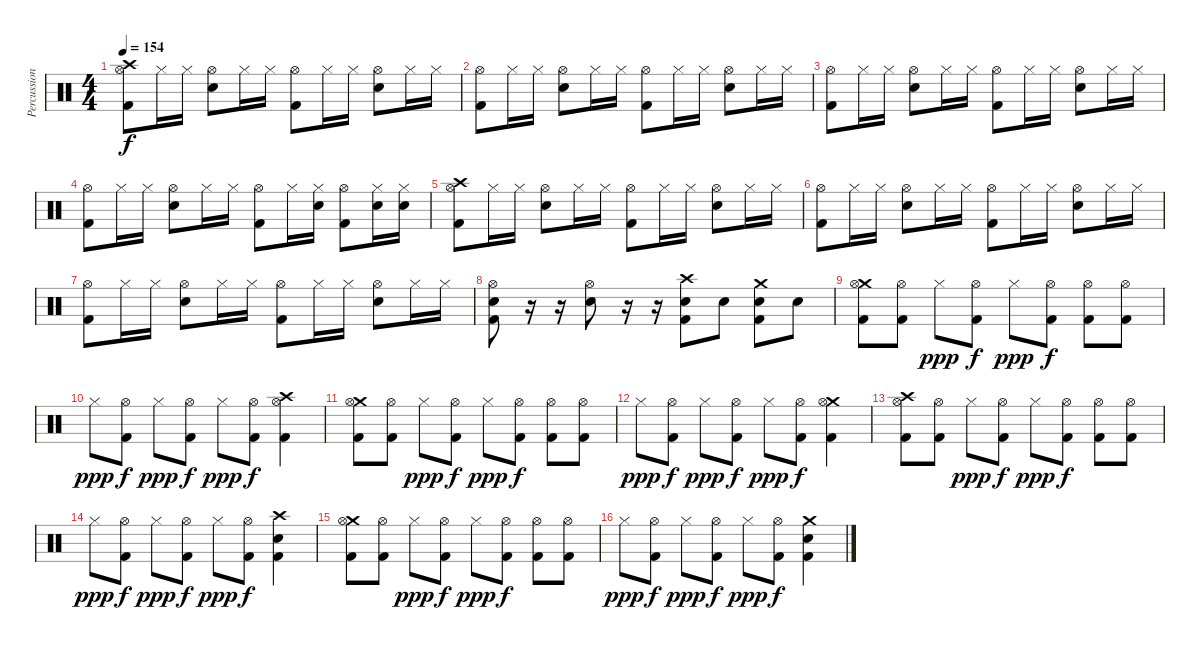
\track ("Percussion" "Percussion") {instrument percussion}
\staff {score}
\articulation defaults
\ts (4 4)
\section ("" "")
\tempo 154
\clef neutral
\ks c
("Crash high (hit)" "Hi-Hat (open)" "Kick (hit) 2").8{dy f} "Hi-Hat (closed)".16 "Hi-Hat (closed)".16 ("Hi-Hat (open)" "Snare (hit) 2").8 "Hi-Hat (closed)".16 "Hi-Hat (closed)".16 ("Hi-Hat (open)" "Kick (hit) 2").8 "Hi-Hat (closed)".16 "Hi-Hat (closed)".16 ("Hi-Hat (open)" "Snare (hit) 2").8 "Hi-Hat (closed)".16 "Hi-Hat (closed)".16 |
("Hi-Hat (open)" "Kick (hit) 2").8 "Hi-Hat (closed)".16 "Hi-Hat (closed)".16 ("Hi-Hat (open)" "Snare (hit) 2").8 "Hi-Hat (closed)".16 "Hi-Hat (closed)".16 ("Hi-Hat (open)" "Kick (hit) 2").8 "Hi-Hat (closed)".16 "Hi-Hat (closed)".16 ("Hi-Hat (open)" "Snare (hit) 2").8 "Hi-Hat (closed)".16 "Hi-Hat (closed)".16 |
("Hi-Hat (open)" "Kick (hit) 2").8 "Hi-Hat (closed)".16 "Hi-Hat (closed)".16 ("Hi-Hat (open)" "Snare (hit) 2").8 "Hi-Hat (closed)".16 "Hi-Hat (closed)".16 ("Hi-Hat (open)" "Kick (hit) 2").8 "Hi-Hat (closed)".16 "Hi-Hat (closed)".16 ("Hi-Hat (open)" "Snare (hit) 2").8 "Hi-Hat (closed)".16 "Hi-Hat (closed)".16 |
("Hi-Hat (open)" "Kick (hit) 2").8 "Hi-Hat (closed)".16 "Hi-Hat (closed)".16 ("Hi-Hat (open)" "Snare (hit) 2").8 "Hi-Hat (closed)".16 "Hi-Hat (closed)".16 ("Hi-Hat (open)" "Kick (hit) 2").8 "Hi-Hat (closed)".16 ("Hi-Hat (closed)" "Snare (hit) 2").16 ("Hi-Hat (open)" "Kick (hit) 2").8 ("Hi-Hat (closed)" "Snare (hit) 2").16 ("Hi-Hat (closed)" "Snare (hit) 2").16 |
("Crash high (hit)" "Hi-Hat (open)" "Kick (hit) 2").8 "Hi-Hat (closed)".16 "Hi-Hat (closed)".16 ("Hi-Hat (open)" "Snare (hit) 2").8 "Hi-Hat (closed)".16 "Hi-Hat (closed)".16 ("Hi-Hat (open)" "Kick (hit) 2").8 "Hi-Hat (closed)".16 "Hi-Hat (closed)".16 ("Hi-Hat (open)" "Snare (hit) 2").8 "Hi-Hat (closed)".16 "Hi-Hat (closed)".16 |
("Hi-Hat (open)" "Kick (hit) 2").8 "Hi-Hat (closed)".16 "Hi-Hat (closed)".16 ("Hi-Hat (open)" "Snare (hit) 2").8 "Hi-Hat (closed)".16 "Hi-Hat (closed)".16 ("Hi-Hat (open)" "Kick (hit) 2").8 "Hi-Hat (closed)".16 "Hi-Hat (closed)".16 ("Hi-Hat (open)" "Snare (hit) 2").8 "Hi-Hat (closed)".16 "Hi-Hat (closed)".16 |
("Hi-Hat (open)" "Kick (hit) 2").8 "Hi-Hat (closed)".16 "Hi-Hat (closed)".16 ("Hi-Hat (open)" "Snare (hit) 2").8 "Hi-Hat (closed)".16 "Hi-Hat (closed)".16 ("Hi-Hat (open)" "Kick (hit) 2").8 "Hi-Hat (closed)".16 "Hi-Hat (closed)".16 ("Hi-Hat (open)" "Snare (hit) 2").8 "Hi-Hat (closed)".16 "Hi-Hat (closed)".16 |
("Hi-Hat (open)" "Snare (hit) 2" "Kick (hit) 2").8 r.16 r.16 ("Hi-Hat (open)" "Snare (hit) 2").8 r.16 r.16 ("Crash high (hit)" "Snare (hit) 2" "Kick (hit) 2").8 "Snare (hit) 2".8 ("Crash medium (hit)" "Snare (hit) 2" "Kick (hit) 2").8 "Snare (hit) 2".8 |
\section ("" "")
("Crash medium (hit)" "Hi-Hat (open)" "Kick (hit) 2").8 ("Hi-Hat (open)" "Kick (hit) 2").8 "Hi-Hat (closed)".8{dy ppp} ("Hi-Hat (open)" "Kick (hit) 2").8{dy f} "Hi-Hat (closed)".8{dy ppp} ("Hi-Hat (open)" "Kick (hit) 2").8{dy f} ("Hi-Hat (open)" "Kick (hit) 2").8 ("Hi-Hat (open)" "Kick (hit) 2").8 |
"Hi-Hat (closed)".8{dy ppp} ("Hi-Hat (open)" "Kick (hit) 2").8{dy f} "Hi-Hat (closed)".8{dy ppp} ("Hi-Hat (open)" "Kick (hit) 2").8{dy f} "Hi-Hat (closed)".8{dy ppp} ("Hi-Hat (open)" "Kick (hit) 2").8{dy f} ("Crash high (hit)" "Hi-Hat (open)" "Kick (hit) 2").4 |
("Crash medium (hit)" "Hi-Hat (open)" "Kick (hit) 2").8 ("Hi-Hat (open)" "Kick (hit) 2").8 "Hi-Hat (closed)".8{dy ppp} ("Hi-Hat (open)" "Kick (hit) 2").8{dy f} "Hi-Hat (closed)".8{dy ppp} ("Hi-Hat (open)" "Kick (hit) 2").8{dy f} ("Hi-Hat (open)" "Kick (hit) 2").8 ("Hi-Hat (open)" "Kick (hit) 2").8 |
"Hi-Hat (closed)".8{dy ppp} ("Hi-Hat (open)" "Kick (hit) 2").8{dy f} "Hi-Hat (closed)".8{dy ppp} ("Hi-Hat (open)" "Kick (hit) 2").8{dy f} "Hi-Hat (closed)".8{dy ppp} ("Hi-Hat (open)" "Kick (hit) 2").8{dy f} ("Crash medium (hit)" "Hi-Hat (open)" "Kick (hit) 2").4 |
("Crash high (hit)" "Hi-Hat (open)" "Kick (hit) 2").8 ("Hi-Hat (open)" "Kick (hit) 2").8 "Hi-Hat (closed)".8{dy ppp} ("Hi-Hat (open)" "Kick (hit) 2").8{dy f} "Hi-Hat (closed)".8{dy ppp} ("Hi-Hat (open)" "Kick (hit) 2").8{dy f} ("Hi-Hat (open)" "Kick (hit) 2").8 ("Hi-Hat (open)" "Kick (hit) 2").8 |
"Hi-Hat (closed)".8{dy ppp} ("Hi-Hat (open)" "Kick (hit) 2").8{dy f} "Hi-Hat (closed)".8{dy ppp} ("Hi-Hat (open)" "Kick (hit) 2").8{dy f} "Hi-Hat (closed)".8{dy ppp} ("Hi-Hat (open)" "Kick (hit) 2").8{dy f} ("Crash high (hit)" "Snare (hit) 2" "Kick (hit) 2").4 |
("Crash medium (hit)" "Hi-Hat (open)" "Kick (hit) 2").8 ("Hi-Hat (open)" "Kick (hit) 2").8 "Hi-Hat (closed)".8{dy ppp} ("Hi-Hat (open)" "Kick (hit) 2").8{dy f} "Hi-Hat (closed)".8{dy ppp} ("Hi-Hat (open)" "Kick (hit) 2").8{dy f} ("Hi-Hat (open)" "Kick (hit) 2").8 ("Hi-Hat (open)" "Kick (hit) 2").8 |
"Hi-Hat (closed)".8{dy ppp} ("Hi-Hat (open)" "Kick (hit) 2").8{dy f} "Hi-Hat (closed)".8{dy ppp} ("Hi-Hat (open)" "Kick (hit) 2").8{dy f} "Hi-Hat (closed)".8{dy ppp} ("Hi-Hat (open)" "Kick (hit) 2").8{dy f} ("Crash medium (hit)" "Snare (hit) 2" "Kick (hit) 2").4
